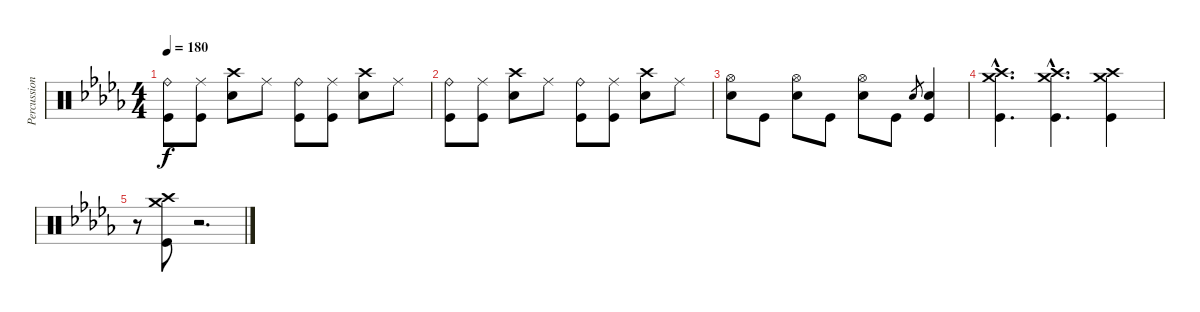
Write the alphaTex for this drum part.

\track ("Percussion" "Percussion") {instrument percussion}
\staff {score}
\articulation defaults
\ts (4 4)
\tempo 180
\clef neutral
\ks db
("Ride (bell)" "Kick (hit)").8{dy f} ("Ride (middle)" "Kick (hit)").8 ("Crash high (hit)" "Electric Snare (hit)").8 "Ride (middle)".8 ("Ride (bell)" "Kick (hit)").8 ("Ride (middle)" "Kick (hit)").8 ("Crash high (hit)" "Electric Snare (hit)").8 "Ride (middle)".8 |
("Ride (bell)" "Kick (hit)").8 ("Ride (middle)" "Kick (hit)").8 ("Crash high (hit)" "Electric Snare (hit)").8 "Ride (middle)".8 ("Ride (bell)" "Kick (hit)").8 ("Ride (middle)" "Kick (hit)").8 ("Crash high (hit)" "Electric Snare (hit)").8 "Ride (middle)".8 |
("Hi-Hat (open)" "Electric Snare (hit)").8 "Kick (hit)".8 ("Hi-Hat (open)" "Electric Snare (hit)").8 "Kick (hit)".8 ("Hi-Hat (open)" "Electric Snare (hit)").8 "Kick (hit)".8 "Electric Snare (hit)".8{gr} ("Electric Snare (hit)" "Kick (hit)").4 |
("Crash high (hit)"{hac} "Crash medium (hit)"{hac} "Kick (hit)"{hac}).4{d} ("Crash high (hit)"{hac} "Crash medium (hit)"{hac} "Kick (hit)"{hac}).4{d} ("Crash high (hit)" "Crash medium (hit)" "Kick (hit)").4 |
r.8 ("Crash high (hit)" "Crash medium (hit)" "Kick (hit)").8 r.2{d}
